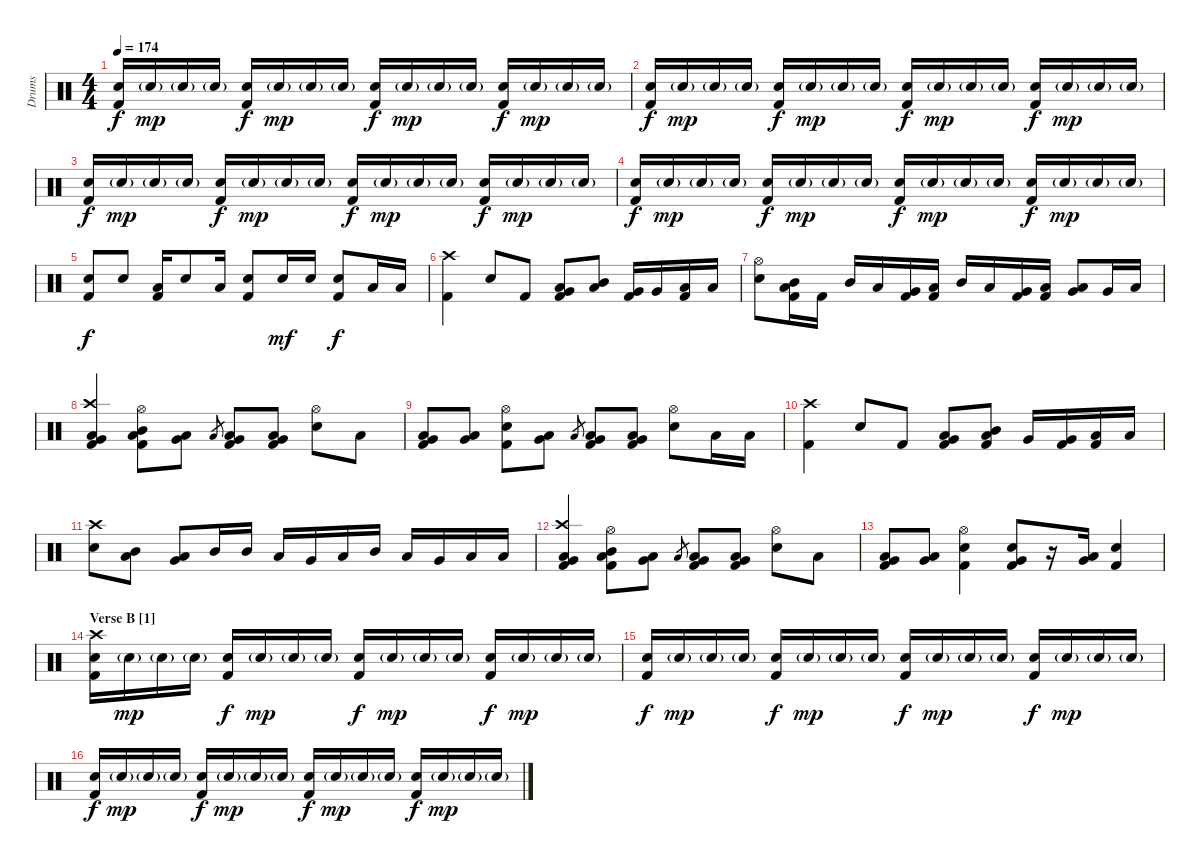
\track ("Drums" "Drums") {instrument percussion}
\staff {score}
\articulation defaults
\ts (4 4)
\tempo 174
\clef neutral
\ks c
("Electric Snare (hit)" "Kick (hit) 2").16{dy f} "Electric Snare (hit)"{g}.16{dy mp} "Electric Snare (hit)"{g}.16 "Electric Snare (hit)"{g}.16 ("Electric Snare (hit)" "Kick (hit) 2").16{dy f} "Electric Snare (hit)"{g}.16{dy mp} "Electric Snare (hit)"{g}.16 "Electric Snare (hit)"{g}.16 ("Electric Snare (hit)" "Kick (hit) 2").16{dy f} "Electric Snare (hit)"{g}.16{dy mp} "Electric Snare (hit)"{g}.16 "Electric Snare (hit)"{g}.16 ("Electric Snare (hit)" "Kick (hit) 2").16{dy f} "Electric Snare (hit)"{g}.16{dy mp} "Electric Snare (hit)"{g}.16 "Electric Snare (hit)"{g}.16 |
("Electric Snare (hit)" "Kick (hit) 2").16{dy f} "Electric Snare (hit)"{g}.16{dy mp} "Electric Snare (hit)"{g}.16 "Electric Snare (hit)"{g}.16 ("Electric Snare (hit)" "Kick (hit) 2").16{dy f} "Electric Snare (hit)"{g}.16{dy mp} "Electric Snare (hit)"{g}.16 "Electric Snare (hit)"{g}.16 ("Electric Snare (hit)" "Kick (hit) 2").16{dy f} "Electric Snare (hit)"{g}.16{dy mp} "Electric Snare (hit)"{g}.16 "Electric Snare (hit)"{g}.16 ("Electric Snare (hit)" "Kick (hit) 2").16{dy f} "Electric Snare (hit)"{g}.16{dy mp} "Electric Snare (hit)"{g}.16 "Electric Snare (hit)"{g}.16 |
("Electric Snare (hit)" "Kick (hit) 2").16{dy f} "Electric Snare (hit)"{g}.16{dy mp} "Electric Snare (hit)"{g}.16 "Electric Snare (hit)"{g}.16 ("Electric Snare (hit)" "Kick (hit) 2").16{dy f} "Electric Snare (hit)"{g}.16{dy mp} "Electric Snare (hit)"{g}.16 "Electric Snare (hit)"{g}.16 ("Electric Snare (hit)" "Kick (hit) 2").16{dy f} "Electric Snare (hit)"{g}.16{dy mp} "Electric Snare (hit)"{g}.16 "Electric Snare (hit)"{g}.16 ("Electric Snare (hit)" "Kick (hit) 2").16{dy f} "Electric Snare (hit)"{g}.16{dy mp} "Electric Snare (hit)"{g}.16 "Electric Snare (hit)"{g}.16 |
("Electric Snare (hit)" "Kick (hit) 2").16{dy f} "Electric Snare (hit)"{g}.16{dy mp} "Electric Snare (hit)"{g}.16 "Electric Snare (hit)"{g}.16 ("Electric Snare (hit)" "Kick (hit) 2").16{dy f} "Electric Snare (hit)"{g}.16{dy mp} "Electric Snare (hit)"{g}.16 "Electric Snare (hit)"{g}.16 ("Electric Snare (hit)" "Kick (hit) 2").16{dy f} "Electric Snare (hit)"{g}.16{dy mp} "Electric Snare (hit)"{g}.16 "Electric Snare (hit)"{g}.16 ("Electric Snare (hit)" "Kick (hit) 2").16{dy f} "Electric Snare (hit)"{g}.16{dy mp} "Electric Snare (hit)"{g}.16 "Electric Snare (hit)"{g}.16 |
("Electric Snare (hit)" "Kick (hit) 2").8{dy f} "Electric Snare (hit)".8 ("Low Tom (hit)" "Kick (hit) 2").16 "Electric Snare (hit)".8 "Low Tom (hit)".16 ("Electric Snare (hit)" "Kick (hit) 2").8 "Electric Snare (hit)".16{dy mf} "Electric Snare (hit)".16 ("Electric Snare (hit)" "Kick (hit) 2").8{dy f} "Low Tom (hit)".16 "Low Tom (hit)".16 |
("Crash high (hit)" "Kick (hit) 2").4 "Electric Snare (hit)".8 "Kick (hit) 2".8 ("Low Tom (hit)" "Very Low Tom (hit)" "Kick (hit) 2").8 ("Mid Tom (hit)" "Low Tom (hit)").8 ("Very Low Tom (hit)" "Kick (hit) 2").16 "Very Low Tom (hit)".16 ("Low Floor Tom (hit)" "Kick (hit) 2").16 "Low Floor Tom (hit)".16 |
("Hi-Hat (open)" "Electric Snare (hit)").8 ("Mid Tom (hit)" "Low Tom (hit)" "Kick (hit) 2").16 "Kick (hit) 2".16 "Mid Tom (hit)".16 "Low Tom (hit)".16 ("Very Low Tom (hit)" "Kick (hit) 2").16 ("Low Floor Tom (hit)" "Kick (hit) 2").16 "Mid Tom (hit)".16 "Low Tom (hit)".16 ("Very Low Tom (hit)" "Kick (hit) 2").16 ("Low Floor Tom (hit)" "Kick (hit) 2").16 ("Low Tom (hit)" "Very Low Tom (hit)").8 "Very Low Tom (hit)".16 "Low Floor Tom (hit)".16 |
("Crash high (hit)" "Low Tom (hit)" "Very Low Tom (hit)" "Kick (hit) 2").4 ("Hi-Hat (open)" "Mid Tom (hit)" "Low Tom (hit)" "Kick (hit) 2").8 ("Low Tom (hit)" "Very Low Tom (hit)").8 "Low Tom (hit)".8{gr} ("Low Tom (hit)" "Very Low Tom (hit)" "Kick (hit) 2").8 ("Low Tom (hit)" "Very Low Tom (hit)" "Kick (hit) 2").8 ("Hi-Hat (open)" "Electric Snare (hit)").8 "Low Tom (hit)".8 |
("Low Tom (hit)" "Very Low Tom (hit)" "Kick (hit) 2").8 ("Low Tom (hit)" "Very Low Tom (hit)").8 ("Hi-Hat (open)" "Electric Snare (hit)" "Kick (hit) 2").8 ("Low Tom (hit)" "Very Low Tom (hit)").8 "Low Tom (hit)".8{gr} ("Low Tom (hit)" "Very Low Tom (hit)" "Kick (hit) 2").8 ("Low Tom (hit)" "Very Low Tom (hit)" "Kick (hit) 2").8 ("Hi-Hat (open)" "Electric Snare (hit)").8 "Low Tom (hit)".16 "Low Tom (hit)".16 |
("Crash high (hit)" "Kick (hit) 2").4 "Electric Snare (hit)".8 "Kick (hit) 2".8 ("Low Tom (hit)" "Very Low Tom (hit)" "Kick (hit) 2").8 ("Mid Tom (hit)" "Low Tom (hit)" "Kick (hit) 2").8 "Very Low Tom (hit)".16 ("Very Low Tom (hit)" "Kick (hit) 2").16 ("Low Floor Tom (hit)" "Kick (hit) 2").16 "Low Floor Tom (hit)".16 |
("Crash high (hit)" "Electric Snare (hit)").8 ("Mid Tom (hit)" "Low Tom (hit)").8 ("Low Tom (hit)" "Very Low Tom (hit)").8 "Mid Tom (hit)".16 "Mid Tom (hit)".16 "Low Tom (hit)".16 "Very Low Tom (hit)".16 "Low Floor Tom (hit)".16 "Mid Tom (hit)".16 "Low Tom (hit)".16 "Very Low Tom (hit)".16 "Low Floor Tom (hit)".16 "Low Tom (hit)".16 |
("Crash high (hit)" "Low Tom (hit)" "Very Low Tom (hit)" "Kick (hit) 2").4 ("Hi-Hat (open)" "Mid Tom (hit)" "Low Tom (hit)" "Kick (hit) 2").8 ("Low Tom (hit)" "Very Low Tom (hit)").8 "Low Tom (hit)".8{gr} ("Low Tom (hit)" "Very Low Tom (hit)" "Kick (hit) 2").8 ("Low Tom (hit)" "Very Low Tom (hit)" "Kick (hit) 2").8 ("Hi-Hat (open)" "Electric Snare (hit)").8 "Low Tom (hit)".8 |
("Low Tom (hit)" "Very Low Tom (hit)" "Kick (hit) 2").8 ("Low Tom (hit)" "Very Low Tom (hit)").8 ("Hi-Hat (open)" "Electric Snare (hit)" "Kick (hit) 2").4 ("Electric Snare (hit)" "Very Low Tom (hit)" "Kick (hit) 2").8 r.16 ("Low Tom (hit)" "Very Low Tom (hit)").16 ("Electric Snare (hit)" "Kick (hit) 2").4 |
\section ("" "Verse B [1]")
("Crash high (hit)" "Electric Snare (hit)" "Kick (hit) 2").16 "Electric Snare (hit)"{g}.16{dy mp} "Electric Snare (hit)"{g}.16 "Electric Snare (hit)"{g}.16 ("Electric Snare (hit)" "Kick (hit) 2").16{dy f} "Electric Snare (hit)"{g}.16{dy mp} "Electric Snare (hit)"{g}.16 "Electric Snare (hit)"{g}.16 ("Electric Snare (hit)" "Kick (hit) 2").16{dy f} "Electric Snare (hit)"{g}.16{dy mp} "Electric Snare (hit)"{g}.16 "Electric Snare (hit)"{g}.16 ("Electric Snare (hit)" "Kick (hit) 2").16{dy f} "Electric Snare (hit)"{g}.16{dy mp} "Electric Snare (hit)"{g}.16 "Electric Snare (hit)"{g}.16 |
("Electric Snare (hit)" "Kick (hit) 2").16{dy f} "Electric Snare (hit)"{g}.16{dy mp} "Electric Snare (hit)"{g}.16 "Electric Snare (hit)"{g}.16 ("Electric Snare (hit)" "Kick (hit) 2").16{dy f} "Electric Snare (hit)"{g}.16{dy mp} "Electric Snare (hit)"{g}.16 "Electric Snare (hit)"{g}.16 ("Electric Snare (hit)" "Kick (hit) 2").16{dy f} "Electric Snare (hit)"{g}.16{dy mp} "Electric Snare (hit)"{g}.16 "Electric Snare (hit)"{g}.16 ("Electric Snare (hit)" "Kick (hit) 2").16{dy f} "Electric Snare (hit)"{g}.16{dy mp} "Electric Snare (hit)"{g}.16 "Electric Snare (hit)"{g}.16 |
("Electric Snare (hit)" "Kick (hit) 2").16{dy f} "Electric Snare (hit)"{g}.16{dy mp} "Electric Snare (hit)"{g}.16 "Electric Snare (hit)"{g}.16 ("Electric Snare (hit)" "Kick (hit) 2").16{dy f} "Electric Snare (hit)"{g}.16{dy mp} "Electric Snare (hit)"{g}.16 "Electric Snare (hit)"{g}.16 ("Electric Snare (hit)" "Kick (hit) 2").16{dy f} "Electric Snare (hit)"{g}.16{dy mp} "Electric Snare (hit)"{g}.16 "Electric Snare (hit)"{g}.16 ("Electric Snare (hit)" "Kick (hit) 2").16{dy f} "Electric Snare (hit)"{g}.16{dy mp} "Electric Snare (hit)"{g}.16 "Electric Snare (hit)"{g}.16
